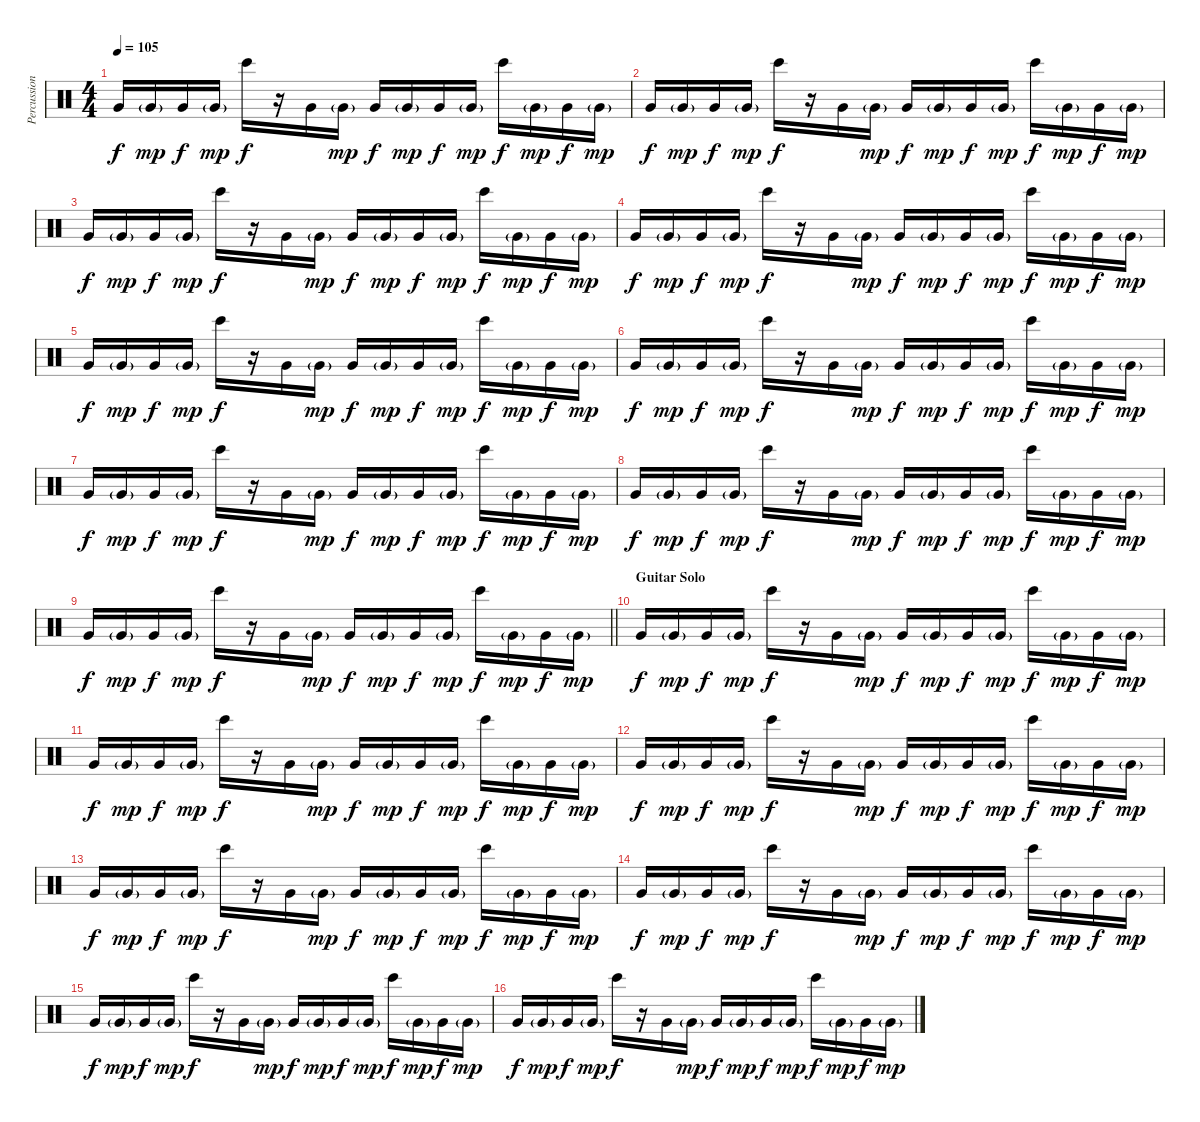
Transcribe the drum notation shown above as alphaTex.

\track ("Percussion" "Percussion") {instrument percussion}
\staff {score}
\articulation defaults
\ts (4 4)
\tempo 105
\clef neutral
\ks c "Very Low Tom (hit)".16{dy f} "Very Low Tom (hit)"{g}.16{dy mp} "Very Low Tom (hit)".16{dy f} "Very Low Tom (hit)"{g}.16{dy mp} "Bongo High (hit)".16{dy f}
r.16 "Very Low Tom (hit)".16 "Very Low Tom (hit)"{g}.16{dy mp} "Very Low Tom (hit)".16{dy f} "Very Low Tom (hit)"{g}.16{dy mp} "Very Low Tom (hit)".16{dy f} "Very Low Tom (hit)"{g}.16{dy mp} "Bongo High (hit)".16{dy f} "Very Low Tom (hit)"{g}.16{dy mp} "Very Low Tom (hit)".16{dy f} "Very Low Tom (hit)"{g}.16{dy mp} |
"Very Low Tom (hit)".16{dy f} "Very Low Tom (hit)"{g}.16{dy mp} "Very Low Tom (hit)".16{dy f} "Very Low Tom (hit)"{g}.16{dy mp} "Bongo High (hit)".16{dy f} r.16 "Very Low Tom (hit)".16 "Very Low Tom (hit)"{g}.16{dy mp} "Very Low Tom (hit)".16{dy f} "Very Low Tom (hit)"{g}.16{dy mp} "Very Low Tom (hit)".16{dy f} "Very Low Tom (hit)"{g}.16{dy mp} "Bongo High (hit)".16{dy f} "Very Low Tom (hit)"{g}.16{dy mp} "Very Low Tom (hit)".16{dy f} "Very Low Tom (hit)"{g}.16{dy mp} |
"Very Low Tom (hit)".16{dy f} "Very Low Tom (hit)"{g}.16{dy mp} "Very Low Tom (hit)".16{dy f} "Very Low Tom (hit)"{g}.16{dy mp} "Bongo High (hit)".16{dy f} r.16 "Very Low Tom (hit)".16 "Very Low Tom (hit)"{g}.16{dy mp} "Very Low Tom (hit)".16{dy f} "Very Low Tom (hit)"{g}.16{dy mp} "Very Low Tom (hit)".16{dy f} "Very Low Tom (hit)"{g}.16{dy mp} "Bongo High (hit)".16{dy f} "Very Low Tom (hit)"{g}.16{dy mp} "Very Low Tom (hit)".16{dy f} "Very Low Tom (hit)"{g}.16{dy mp} |
"Very Low Tom (hit)".16{dy f} "Very Low Tom (hit)"{g}.16{dy mp} "Very Low Tom (hit)".16{dy f} "Very Low Tom (hit)"{g}.16{dy mp} "Bongo High (hit)".16{dy f} r.16 "Very Low Tom (hit)".16 "Very Low Tom (hit)"{g}.16{dy mp} "Very Low Tom (hit)".16{dy f} "Very Low Tom (hit)"{g}.16{dy mp} "Very Low Tom (hit)".16{dy f} "Very Low Tom (hit)"{g}.16{dy mp} "Bongo High (hit)".16{dy f} "Very Low Tom (hit)"{g}.16{dy mp} "Very Low Tom (hit)".16{dy f} "Very Low Tom (hit)"{g}.16{dy mp} |
"Very Low Tom (hit)".16{dy f} "Very Low Tom (hit)"{g}.16{dy mp} "Very Low Tom (hit)".16{dy f} "Very Low Tom (hit)"{g}.16{dy mp} "Bongo High (hit)".16{dy f} r.16 "Very Low Tom (hit)".16 "Very Low Tom (hit)"{g}.16{dy mp} "Very Low Tom (hit)".16{dy f} "Very Low Tom (hit)"{g}.16{dy mp} "Very Low Tom (hit)".16{dy f} "Very Low Tom (hit)"{g}.16{dy mp} "Bongo High (hit)".16{dy f} "Very Low Tom (hit)"{g}.16{dy mp} "Very Low Tom (hit)".16{dy f} "Very Low Tom (hit)"{g}.16{dy mp} |
"Very Low Tom (hit)".16{dy f} "Very Low Tom (hit)"{g}.16{dy mp} "Very Low Tom (hit)".16{dy f} "Very Low Tom (hit)"{g}.16{dy mp} "Bongo High (hit)".16{dy f} r.16 "Very Low Tom (hit)".16 "Very Low Tom (hit)"{g}.16{dy mp} "Very Low Tom (hit)".16{dy f} "Very Low Tom (hit)"{g}.16{dy mp} "Very Low Tom (hit)".16{dy f} "Very Low Tom (hit)"{g}.16{dy mp} "Bongo High (hit)".16{dy f} "Very Low Tom (hit)"{g}.16{dy mp} "Very Low Tom (hit)".16{dy f} "Very Low Tom (hit)"{g}.16{dy mp} |
"Very Low Tom (hit)".16{dy f} "Very Low Tom (hit)"{g}.16{dy mp} "Very Low Tom (hit)".16{dy f} "Very Low Tom (hit)"{g}.16{dy mp} "Bongo High (hit)".16{dy f} r.16 "Very Low Tom (hit)".16 "Very Low Tom (hit)"{g}.16{dy mp} "Very Low Tom (hit)".16{dy f} "Very Low Tom (hit)"{g}.16{dy mp} "Very Low Tom (hit)".16{dy f} "Very Low Tom (hit)"{g}.16{dy mp} "Bongo High (hit)".16{dy f} "Very Low Tom (hit)"{g}.16{dy mp} "Very Low Tom (hit)".16{dy f} "Very Low Tom (hit)"{g}.16{dy mp} |
"Very Low Tom (hit)".16{dy f} "Very Low Tom (hit)"{g}.16{dy mp} "Very Low Tom (hit)".16{dy f} "Very Low Tom (hit)"{g}.16{dy mp} "Bongo High (hit)".16{dy f} r.16 "Very Low Tom (hit)".16 "Very Low Tom (hit)"{g}.16{dy mp} "Very Low Tom (hit)".16{dy f} "Very Low Tom (hit)"{g}.16{dy mp} "Very Low Tom (hit)".16{dy f} "Very Low Tom (hit)"{g}.16{dy mp} "Bongo High (hit)".16{dy f} "Very Low Tom (hit)"{g}.16{dy mp} "Very Low Tom (hit)".16{dy f} "Very Low Tom (hit)"{g}.16{dy mp} |
\barLineRight lightlight "Very Low Tom (hit)".16{dy f} "Very Low Tom (hit)"{g}.16{dy mp} "Very Low Tom (hit)".16{dy f} "Very Low Tom (hit)"{g}.16{dy mp} "Bongo High (hit)".16{dy f}
r.16 "Very Low Tom (hit)".16 "Very Low Tom (hit)"{g}.16{dy mp} "Very Low Tom (hit)".16{dy f} "Very Low Tom (hit)"{g}.16{dy mp} "Very Low Tom (hit)".16{dy f} "Very Low Tom (hit)"{g}.16{dy mp} "Bongo High (hit)".16{dy f} "Very Low Tom (hit)"{g}.16{dy mp} "Very Low Tom (hit)".16{dy f} "Very Low Tom (hit)"{g}.16{dy mp} |
\section ("" "Guitar Solo")
"Very Low Tom (hit)".16{dy f} "Very Low Tom (hit)"{g}.16{dy mp} "Very Low Tom (hit)".16{dy f} "Very Low Tom (hit)"{g}.16{dy mp} "Bongo High (hit)".16{dy f} r.16 "Very Low Tom (hit)".16 "Very Low Tom (hit)"{g}.16{dy mp} "Very Low Tom (hit)".16{dy f} "Very Low Tom (hit)"{g}.16{dy mp} "Very Low Tom (hit)".16{dy f} "Very Low Tom (hit)"{g}.16{dy mp} "Bongo High (hit)".16{dy f} "Very Low Tom (hit)"{g}.16{dy mp} "Very Low Tom (hit)".16{dy f} "Very Low Tom (hit)"{g}.16{dy mp} |
"Very Low Tom (hit)".16{dy f} "Very Low Tom (hit)"{g}.16{dy mp} "Very Low Tom (hit)".16{dy f} "Very Low Tom (hit)"{g}.16{dy mp} "Bongo High (hit)".16{dy f} r.16 "Very Low Tom (hit)".16 "Very Low Tom (hit)"{g}.16{dy mp} "Very Low Tom (hit)".16{dy f} "Very Low Tom (hit)"{g}.16{dy mp} "Very Low Tom (hit)".16{dy f} "Very Low Tom (hit)"{g}.16{dy mp} "Bongo High (hit)".16{dy f} "Very Low Tom (hit)"{g}.16{dy mp} "Very Low Tom (hit)".16{dy f} "Very Low Tom (hit)"{g}.16{dy mp} |
"Very Low Tom (hit)".16{dy f} "Very Low Tom (hit)"{g}.16{dy mp} "Very Low Tom (hit)".16{dy f} "Very Low Tom (hit)"{g}.16{dy mp} "Bongo High (hit)".16{dy f} r.16 "Very Low Tom (hit)".16 "Very Low Tom (hit)"{g}.16{dy mp} "Very Low Tom (hit)".16{dy f} "Very Low Tom (hit)"{g}.16{dy mp} "Very Low Tom (hit)".16{dy f} "Very Low Tom (hit)"{g}.16{dy mp} "Bongo High (hit)".16{dy f} "Very Low Tom (hit)"{g}.16{dy mp} "Very Low Tom (hit)".16{dy f} "Very Low Tom (hit)"{g}.16{dy mp} |
"Very Low Tom (hit)".16{dy f} "Very Low Tom (hit)"{g}.16{dy mp} "Very Low Tom (hit)".16{dy f} "Very Low Tom (hit)"{g}.16{dy mp} "Bongo High (hit)".16{dy f} r.16 "Very Low Tom (hit)".16 "Very Low Tom (hit)"{g}.16{dy mp} "Very Low Tom (hit)".16{dy f} "Very Low Tom (hit)"{g}.16{dy mp} "Very Low Tom (hit)".16{dy f} "Very Low Tom (hit)"{g}.16{dy mp} "Bongo High (hit)".16{dy f} "Very Low Tom (hit)"{g}.16{dy mp} "Very Low Tom (hit)".16{dy f} "Very Low Tom (hit)"{g}.16{dy mp} |
"Very Low Tom (hit)".16{dy f} "Very Low Tom (hit)"{g}.16{dy mp} "Very Low Tom (hit)".16{dy f} "Very Low Tom (hit)"{g}.16{dy mp} "Bongo High (hit)".16{dy f} r.16 "Very Low Tom (hit)".16 "Very Low Tom (hit)"{g}.16{dy mp} "Very Low Tom (hit)".16{dy f} "Very Low Tom (hit)"{g}.16{dy mp} "Very Low Tom (hit)".16{dy f} "Very Low Tom (hit)"{g}.16{dy mp} "Bongo High (hit)".16{dy f} "Very Low Tom (hit)"{g}.16{dy mp} "Very Low Tom (hit)".16{dy f} "Very Low Tom (hit)"{g}.16{dy mp} |
"Very Low Tom (hit)".16{dy f} "Very Low Tom (hit)"{g}.16{dy mp} "Very Low Tom (hit)".16{dy f} "Very Low Tom (hit)"{g}.16{dy mp} "Bongo High (hit)".16{dy f} r.16 "Very Low Tom (hit)".16 "Very Low Tom (hit)"{g}.16{dy mp} "Very Low Tom (hit)".16{dy f} "Very Low Tom (hit)"{g}.16{dy mp} "Very Low Tom (hit)".16{dy f} "Very Low Tom (hit)"{g}.16{dy mp} "Bongo High (hit)".16{dy f} "Very Low Tom (hit)"{g}.16{dy mp} "Very Low Tom (hit)".16{dy f} "Very Low Tom (hit)"{g}.16{dy mp} |
"Very Low Tom (hit)".16{dy f} "Very Low Tom (hit)"{g}.16{dy mp} "Very Low Tom (hit)".16{dy f} "Very Low Tom (hit)"{g}.16{dy mp} "Bongo High (hit)".16{dy f} r.16 "Very Low Tom (hit)".16 "Very Low Tom (hit)"{g}.16{dy mp} "Very Low Tom (hit)".16{dy f} "Very Low Tom (hit)"{g}.16{dy mp} "Very Low Tom (hit)".16{dy f} "Very Low Tom (hit)"{g}.16{dy mp} "Bongo High (hit)".16{dy f} "Very Low Tom (hit)"{g}.16{dy mp} "Very Low Tom (hit)".16{dy f} "Very Low Tom (hit)"{g}.16{dy mp}
